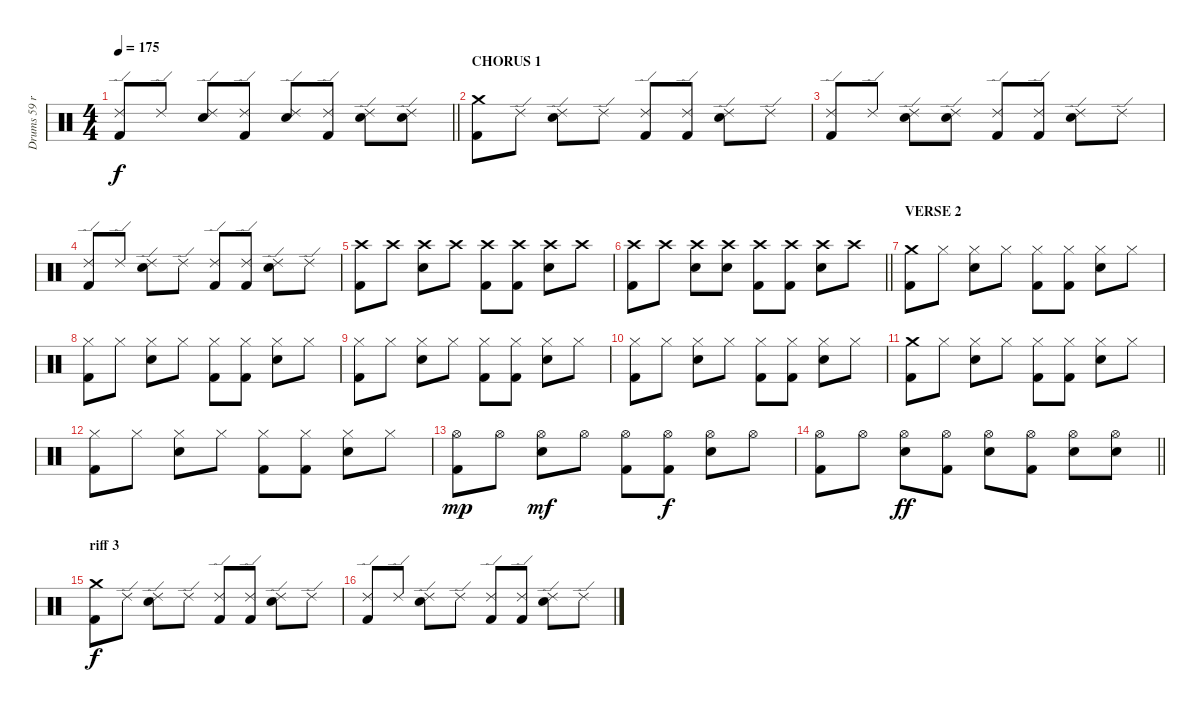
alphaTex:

\track ("Drums 59 ride" "Drums 59 r") {instrument percussion}
\staff {score}
\articulation defaults
\ts (4 4)
\tempo 175
\clef neutral
\barLineRight lightlight
\ks c
("Ride (edge) 2" "Kick (hit) 2").8{dy f} "Ride (edge) 2".8 ("Ride (edge) 2" "Snare (hit) 2").8 ("Ride (edge) 2" "Kick (hit) 2").8 ("Ride (edge) 2" "Snare (hit) 2").8 ("Ride (edge) 2" "Kick (hit) 2").8 ("Ride (edge) 2" "Snare (hit) 2").8 ("Ride (edge) 2" "Snare (hit) 2").8 |
\section ("" "CHORUS 1")
("Crash medium (hit)" "Kick (hit) 2").8 "Ride (edge) 2".8 ("Ride (edge) 2" "Snare (hit) 2").8 "Ride (edge) 2".8 ("Ride (edge) 2" "Kick (hit) 2").8 ("Ride (edge) 2" "Kick (hit) 2").8 ("Ride (edge) 2" "Snare (hit) 2").8 "Ride (edge) 2".8 |
("Ride (edge) 2" "Kick (hit) 2").8 "Ride (edge) 2".8 ("Ride (edge) 2" "Snare (hit) 2").8 ("Ride (edge) 2" "Snare (hit) 2").8 ("Ride (edge) 2" "Kick (hit) 2").8 ("Ride (edge) 2" "Kick (hit) 2").8 ("Ride (edge) 2" "Snare (hit) 2").8 "Ride (edge) 2".8 |
("Ride (edge) 2" "Kick (hit) 2").8 "Ride (edge) 2".8 ("Ride (edge) 2" "Snare (hit) 2").8 "Ride (edge) 2".8 ("Ride (edge) 2" "Kick (hit) 2").8 ("Ride (edge) 2" "Kick (hit) 2").8 ("Ride (edge) 2" "Snare (hit) 2").8 "Ride (edge) 2".8 |
("Crash high (hit)" "Kick (hit) 2").8 "Crash high (hit)".8 ("Crash high (hit)" "Snare (hit) 2").8 "Crash high (hit)".8 ("Crash high (hit)" "Kick (hit) 2").8 ("Crash high (hit)" "Kick (hit) 2").8 ("Crash high (hit)" "Snare (hit) 2").8 "Crash high (hit)".8 |
\barLineRight lightlight
("Crash high (hit)" "Kick (hit) 2").8 "Crash high (hit)".8 ("Crash high (hit)" "Snare (hit) 2").8 ("Crash high (hit)" "Snare (hit) 2").8 ("Crash high (hit)" "Kick (hit) 2").8 ("Crash high (hit)" "Kick (hit) 2").8 ("Crash high (hit)" "Snare (hit) 2").8 "Crash high (hit)".8 |
\section ("" "VERSE 2")
("Crash medium (hit)" "Kick (hit) 2").8 "Hi-Hat (closed)".8 ("Hi-Hat (closed)" "Snare (hit) 2").8 "Hi-Hat (closed)".8 ("Hi-Hat (closed)" "Kick (hit) 2").8 ("Hi-Hat (closed)" "Kick (hit) 2").8 ("Hi-Hat (closed)" "Snare (hit) 2").8 "Hi-Hat (closed)".8 |
("Hi-Hat (closed)" "Kick (hit) 2").8 "Hi-Hat (closed)".8 ("Hi-Hat (closed)" "Snare (hit) 2").8 "Hi-Hat (closed)".8 ("Hi-Hat (closed)" "Kick (hit) 2").8 ("Hi-Hat (closed)" "Kick (hit) 2").8 ("Hi-Hat (closed)" "Snare (hit) 2").8 "Hi-Hat (closed)".8 |
("Hi-Hat (closed)" "Kick (hit) 2").8 "Hi-Hat (closed)".8 ("Hi-Hat (closed)" "Snare (hit) 2").8 "Hi-Hat (closed)".8 ("Hi-Hat (closed)" "Kick (hit) 2").8 ("Hi-Hat (closed)" "Kick (hit) 2").8 ("Hi-Hat (closed)" "Snare (hit) 2").8 "Hi-Hat (closed)".8 |
("Hi-Hat (closed)" "Kick (hit) 2").8 "Hi-Hat (closed)".8 ("Hi-Hat (closed)" "Snare (hit) 2").8 "Hi-Hat (closed)".8 ("Hi-Hat (closed)" "Kick (hit) 2").8 ("Hi-Hat (closed)" "Kick (hit) 2").8 ("Hi-Hat (closed)" "Snare (hit) 2").8 "Hi-Hat (closed)".8 |
("Crash medium (hit)" "Kick (hit) 2").8 "Hi-Hat (closed)".8 ("Hi-Hat (closed)" "Snare (hit) 2").8 "Hi-Hat (closed)".8 ("Hi-Hat (closed)" "Kick (hit) 2").8 ("Hi-Hat (closed)" "Kick (hit) 2").8 ("Hi-Hat (closed)" "Snare (hit) 2").8 "Hi-Hat (closed)".8 |
("Hi-Hat (closed)" "Kick (hit) 2").8 "Hi-Hat (closed)".8 ("Hi-Hat (closed)" "Snare (hit) 2").8 "Hi-Hat (closed)".8 ("Hi-Hat (closed)" "Kick (hit) 2").8 ("Hi-Hat (closed)" "Kick (hit) 2").8 ("Hi-Hat (closed)" "Snare (hit) 2").8 "Hi-Hat (closed)".8 |
("Hi-Hat (open)" "Kick (hit) 2").8{dy mp} "Hi-Hat (open)".8 ("Hi-Hat (open)" "Snare (hit) 2").8{dy mf} "Hi-Hat (open)".8 ("Hi-Hat (open)" "Kick (hit) 2").8 ("Hi-Hat (open)" "Kick (hit) 2").8{dy f} ("Hi-Hat (open)" "Snare (hit) 2").8 "Hi-Hat (open)".8 |
\barLineRight lightlight
("Hi-Hat (open)" "Kick (hit) 2").8 "Hi-Hat (open)".8 ("Hi-Hat (open)" "Snare (hit) 2").8{dy ff} ("Hi-Hat (open)" "Kick (hit) 2").8 ("Hi-Hat (open)" "Snare (hit) 2").8 ("Hi-Hat (open)" "Kick (hit) 2").8 ("Hi-Hat (open)" "Snare (hit) 2").8 ("Hi-Hat (open)" "Snare (hit) 2").8 |
\section ("" "riff 3")
("Crash medium (hit)" "Kick (hit) 2").8{dy f} "Ride (edge) 2".8 ("Ride (edge) 2" "Snare (hit) 2").8 "Ride (edge) 2".8 ("Ride (edge) 2" "Kick (hit) 2").8 ("Ride (edge) 2" "Kick (hit) 2").8 ("Ride (edge) 2" "Snare (hit) 2").8 "Ride (edge) 2".8 |
("Ride (edge) 2" "Kick (hit) 2").8 "Ride (edge) 2".8 ("Ride (edge) 2" "Snare (hit) 2").8 "Ride (edge) 2".8 ("Ride (edge) 2" "Kick (hit) 2").8 ("Ride (edge) 2" "Kick (hit) 2").8 ("Ride (edge) 2" "Snare (hit) 2").8 "Ride (edge) 2".8
